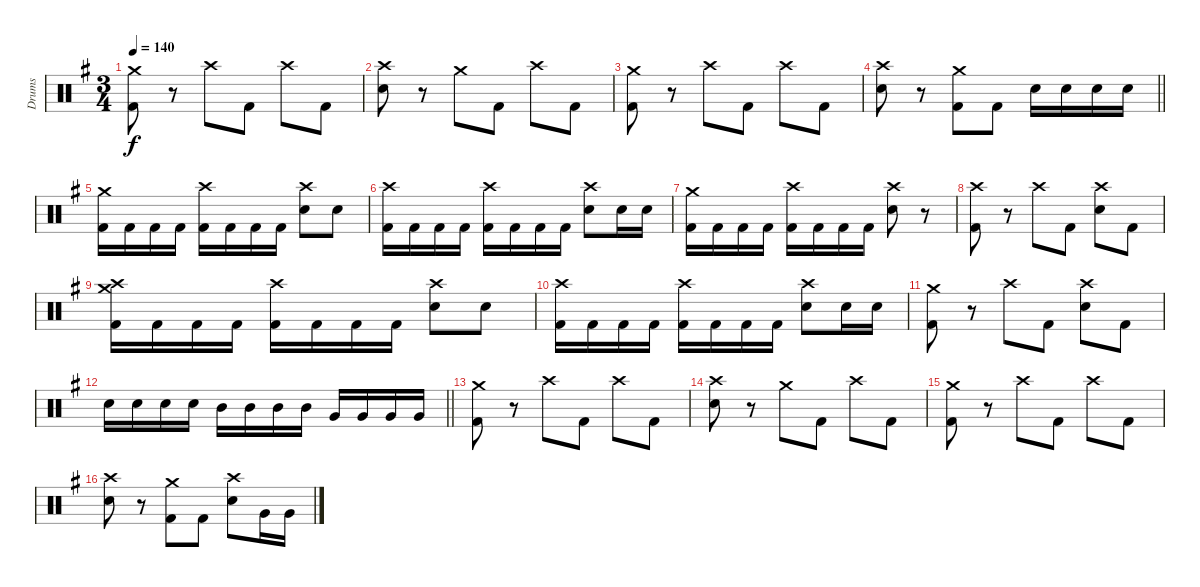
\track ("Drums" "Drums") {instrument percussion}
\staff {score}
\articulation defaults
\ts (3 4)
\tempo 140
\clef neutral
\ks eminor
("Crash medium (hit)" "Kick (hit) 2").8{dy f} r.8 "Crash high (hit)".8 "Kick (hit) 2".8 "Crash high (hit)".8 "Kick (hit) 2".8 |
("Crash high (hit)" "Snare (hit) 2").8 r.8 "Crash medium (hit)".8 "Kick (hit) 2".8 "Crash high (hit)".8 "Kick (hit) 2".8 |
("Crash medium (hit)" "Kick (hit) 2").8 r.8 "Crash high (hit)".8 "Kick (hit) 2".8 "Crash high (hit)".8 "Kick (hit) 2".8 |
\barLineRight lightlight
("Crash high (hit)" "Snare (hit) 2").8 r.8 ("Crash medium (hit)" "Kick (hit) 2").8 "Kick (hit) 2".8 "Snare (hit) 2".16 "Snare (hit) 2".16 "Snare (hit) 2".16 "Snare (hit) 2".16 |
("Crash medium (hit)" "Kick (hit) 2").16 "Kick (hit) 2".16 "Kick (hit) 2".16 "Kick (hit) 2".16 ("Crash high (hit)" "Kick (hit) 2").16 "Kick (hit) 2".16 "Kick (hit) 2".16 "Kick (hit) 2".16 ("Crash high (hit)" "Snare (hit) 2").8 "Snare (hit) 2".8 |
("Crash high (hit)" "Kick (hit) 2").16 "Kick (hit) 2".16 "Kick (hit) 2".16 "Kick (hit) 2".16 ("Crash high (hit)" "Kick (hit) 2").16 "Kick (hit) 2".16 "Kick (hit) 2".16 "Kick (hit) 2".16 ("Crash high (hit)" "Snare (hit) 2").8 "Snare (hit) 2".16 "Snare (hit) 2".16 |
("Crash medium (hit)" "Kick (hit) 2").16 "Kick (hit) 2".16 "Kick (hit) 2".16 "Kick (hit) 2".16 ("Crash high (hit)" "Kick (hit) 2").16 "Kick (hit) 2".16 "Kick (hit) 2".16 "Kick (hit) 2".16 ("Crash high (hit)" "Snare (hit) 2").8 r.8 |
("Crash high (hit)" "Kick (hit) 2").8 r.8 "Crash high (hit)".8 "Kick (hit) 2".8 ("Crash high (hit)" "Snare (hit) 2").8 "Kick (hit) 2".8 |
("Crash medium (hit)" "Crash high (hit)" "Kick (hit) 2").16 "Kick (hit) 2".16 "Kick (hit) 2".16 "Kick (hit) 2".16 ("Crash high (hit)" "Kick (hit) 2").16 "Kick (hit) 2".16 "Kick (hit) 2".16 "Kick (hit) 2".16 ("Crash high (hit)" "Snare (hit) 2").8 "Snare (hit) 2".8 |
("Crash high (hit)" "Kick (hit) 2").16 "Kick (hit) 2".16 "Kick (hit) 2".16 "Kick (hit) 2".16 ("Crash high (hit)" "Kick (hit) 2").16 "Kick (hit) 2".16 "Kick (hit) 2".16 "Kick (hit) 2".16 ("Crash high (hit)" "Snare (hit) 2").8 "Snare (hit) 2".16 "Snare (hit) 2".16 |
("Crash medium (hit)" "Kick (hit) 2").8 r.8 "Crash high (hit)".8 "Kick (hit) 2".8 ("Crash high (hit)" "Snare (hit) 2").8 "Kick (hit) 2".8 |
\barLineRight lightlight "Snare (hit) 2".16 "Snare (hit) 2".16 "Snare (hit) 2".16 "Snare (hit) 2".16 "Mid Tom (hit)".16 "Mid Tom (hit)".16 "Mid Tom (hit)".16 "Mid Tom (hit)".16 "Very Low Tom (hit)".16 "Very Low Tom (hit)".16 "Very Low Tom (hit)".16 "Very Low Tom (hit)".16
|
("Crash medium (hit)" "Kick (hit) 2").8 r.8 "Crash high (hit)".8 "Kick (hit) 2".8 "Crash high (hit)".8 "Kick (hit) 2".8 |
("Crash high (hit)" "Snare (hit) 2").8 r.8 "Crash medium (hit)".8 "Kick (hit) 2".8 "Crash high (hit)".8 "Kick (hit) 2".8 |
("Crash medium (hit)" "Kick (hit) 2").8 r.8 "Crash high (hit)".8 "Kick (hit) 2".8 "Crash high (hit)".8 "Kick (hit) 2".8 |
("Crash high (hit)" "Snare (hit) 2").8 r.8 ("Crash medium (hit)" "Kick (hit) 2").8 "Kick (hit) 2".8 ("Crash high (hit)" "Snare (hit) 2").8 "Very Low Tom (hit)".16 "Very Low Tom (hit)".16
